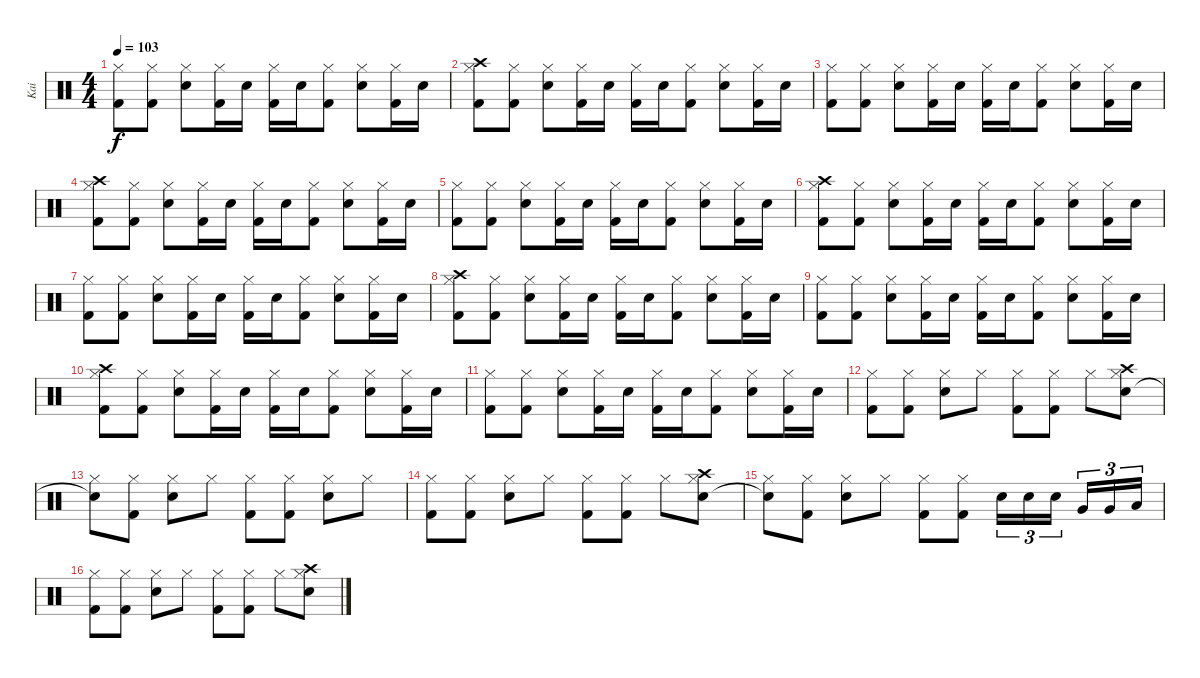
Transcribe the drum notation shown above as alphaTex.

\track ("Kai" "Kai") {instrument percussion}
\staff {score}
\articulation defaults
\ts (4 4)
\tempo 103
\clef neutral
\ks c
("Hi-Hat (closed)" "Kick (hit) 2").8{dy f} ("Hi-Hat (closed)" "Kick (hit) 2").8 ("Hi-Hat (closed)" "Electric Snare (hit)").8 ("Hi-Hat (closed)" "Kick (hit) 2").16 "Electric Snare (hit)".16 ("Hi-Hat (closed)" "Kick (hit) 2").16 "Electric Snare (hit)".16 ("Hi-Hat (closed)" "Kick (hit) 2").8 ("Hi-Hat (closed)" "Electric Snare (hit)").8 ("Hi-Hat (closed)" "Kick (hit) 2").16 "Electric Snare (hit)".16 |
("Crash high (hit)" "Hi-Hat (closed)" "Kick (hit) 2").8 ("Hi-Hat (closed)" "Kick (hit) 2").8 ("Hi-Hat (closed)" "Electric Snare (hit)").8 ("Hi-Hat (closed)" "Kick (hit) 2").16 "Electric Snare (hit)".16 ("Hi-Hat (closed)" "Kick (hit) 2").16 "Electric Snare (hit)".16 ("Hi-Hat (closed)" "Kick (hit) 2").8 ("Hi-Hat (closed)" "Electric Snare (hit)").8 ("Hi-Hat (closed)" "Kick (hit) 2").16 "Electric Snare (hit)".16 |
("Hi-Hat (closed)" "Kick (hit) 2").8 ("Hi-Hat (closed)" "Kick (hit) 2").8 ("Hi-Hat (closed)" "Electric Snare (hit)").8 ("Hi-Hat (closed)" "Kick (hit) 2").16 "Electric Snare (hit)".16 ("Hi-Hat (closed)" "Kick (hit) 2").16 "Electric Snare (hit)".16 ("Hi-Hat (closed)" "Kick (hit) 2").8 ("Hi-Hat (closed)" "Electric Snare (hit)").8 ("Hi-Hat (closed)" "Kick (hit) 2").16 "Electric Snare (hit)".16 |
("Crash high (hit)" "Hi-Hat (closed)" "Kick (hit) 2").8 ("Hi-Hat (closed)" "Kick (hit) 2").8 ("Hi-Hat (closed)" "Electric Snare (hit)").8 ("Hi-Hat (closed)" "Kick (hit) 2").16 "Electric Snare (hit)".16 ("Hi-Hat (closed)" "Kick (hit) 2").16 "Electric Snare (hit)".16 ("Hi-Hat (closed)" "Kick (hit) 2").8 ("Hi-Hat (closed)" "Electric Snare (hit)").8 ("Hi-Hat (closed)" "Kick (hit) 2").16 "Electric Snare (hit)".16 |
("Hi-Hat (closed)" "Kick (hit) 2").8 ("Hi-Hat (closed)" "Kick (hit) 2").8 ("Hi-Hat (closed)" "Electric Snare (hit)").8 ("Hi-Hat (closed)" "Kick (hit) 2").16 "Electric Snare (hit)".16 ("Hi-Hat (closed)" "Kick (hit) 2").16 "Electric Snare (hit)".16 ("Hi-Hat (closed)" "Kick (hit) 2").8 ("Hi-Hat (closed)" "Electric Snare (hit)").8 ("Hi-Hat (closed)" "Kick (hit) 2").16 "Electric Snare (hit)".16 |
("Crash high (hit)" "Hi-Hat (closed)" "Kick (hit) 2").8 ("Hi-Hat (closed)" "Kick (hit) 2").8 ("Hi-Hat (closed)" "Electric Snare (hit)").8 ("Hi-Hat (closed)" "Kick (hit) 2").16 "Electric Snare (hit)".16 ("Hi-Hat (closed)" "Kick (hit) 2").16 "Electric Snare (hit)".16 ("Hi-Hat (closed)" "Kick (hit) 2").8 ("Hi-Hat (closed)" "Electric Snare (hit)").8 ("Hi-Hat (closed)" "Kick (hit) 2").16 "Electric Snare (hit)".16 |
("Hi-Hat (closed)" "Kick (hit) 2").8 ("Hi-Hat (closed)" "Kick (hit) 2").8 ("Hi-Hat (closed)" "Electric Snare (hit)").8 ("Hi-Hat (closed)" "Kick (hit) 2").16 "Electric Snare (hit)".16 ("Hi-Hat (closed)" "Kick (hit) 2").16 "Electric Snare (hit)".16 ("Hi-Hat (closed)" "Kick (hit) 2").8 ("Hi-Hat (closed)" "Electric Snare (hit)").8 ("Hi-Hat (closed)" "Kick (hit) 2").16 "Electric Snare (hit)".16 |
("Crash high (hit)" "Hi-Hat (closed)" "Kick (hit) 2").8 ("Hi-Hat (closed)" "Kick (hit) 2").8 ("Hi-Hat (closed)" "Electric Snare (hit)").8 ("Hi-Hat (closed)" "Kick (hit) 2").16 "Electric Snare (hit)".16 ("Hi-Hat (closed)" "Kick (hit) 2").16 "Electric Snare (hit)".16 ("Hi-Hat (closed)" "Kick (hit) 2").8 ("Hi-Hat (closed)" "Electric Snare (hit)").8 ("Hi-Hat (closed)" "Kick (hit) 2").16 "Electric Snare (hit)".16 |
("Hi-Hat (closed)" "Kick (hit) 2").8 ("Hi-Hat (closed)" "Kick (hit) 2").8 ("Hi-Hat (closed)" "Electric Snare (hit)").8 ("Hi-Hat (closed)" "Kick (hit) 2").16 "Electric Snare (hit)".16 ("Hi-Hat (closed)" "Kick (hit) 2").16 "Electric Snare (hit)".16 ("Hi-Hat (closed)" "Kick (hit) 2").8 ("Hi-Hat (closed)" "Electric Snare (hit)").8 ("Hi-Hat (closed)" "Kick (hit) 2").16 "Electric Snare (hit)".16 |
("Crash high (hit)" "Hi-Hat (closed)" "Kick (hit) 2").8 ("Hi-Hat (closed)" "Kick (hit) 2").8 ("Hi-Hat (closed)" "Electric Snare (hit)").8 ("Hi-Hat (closed)" "Kick (hit) 2").16 "Electric Snare (hit)".16 ("Hi-Hat (closed)" "Kick (hit) 2").16 "Electric Snare (hit)".16 ("Hi-Hat (closed)" "Kick (hit) 2").8 ("Hi-Hat (closed)" "Electric Snare (hit)").8 ("Hi-Hat (closed)" "Kick (hit) 2").16 "Electric Snare (hit)".16 |
("Hi-Hat (closed)" "Kick (hit) 2").8 ("Hi-Hat (closed)" "Kick (hit) 2").8 ("Hi-Hat (closed)" "Electric Snare (hit)").8 ("Hi-Hat (closed)" "Kick (hit) 2").16 "Electric Snare (hit)".16 ("Hi-Hat (closed)" "Kick (hit) 2").16 "Electric Snare (hit)".16 ("Hi-Hat (closed)" "Kick (hit) 2").8 ("Hi-Hat (closed)" "Electric Snare (hit)").8 ("Hi-Hat (closed)" "Kick (hit) 2").16 "Electric Snare (hit)".16 |
("Hi-Hat (closed)" "Kick (hit) 2").8 ("Hi-Hat (closed)" "Kick (hit) 2").8 ("Hi-Hat (closed)" "Electric Snare (hit)").8 "Hi-Hat (closed)".8 ("Hi-Hat (closed)" "Kick (hit) 2").8 ("Hi-Hat (closed)" "Kick (hit) 2").8 "Hi-Hat (closed)".8 ("Electric Snare (hit)" "Crash high (hit)" "Hi-Hat (closed)").8 |
("Snare (hit)"{t} "Hi-Hat (closed)").8 ("Hi-Hat (closed)" "Kick (hit) 2").8 ("Hi-Hat (closed)" "Electric Snare (hit)").8 "Hi-Hat (closed)".8 ("Hi-Hat (closed)" "Kick (hit) 2").8 ("Hi-Hat (closed)" "Kick (hit) 2").8 ("Hi-Hat (closed)" "Electric Snare (hit)").8 "Hi-Hat (closed)".8 |
("Hi-Hat (closed)" "Kick (hit) 2").8 ("Hi-Hat (closed)" "Kick (hit) 2").8 ("Hi-Hat (closed)" "Electric Snare (hit)").8 "Hi-Hat (closed)".8 ("Hi-Hat (closed)" "Kick (hit) 2").8 ("Hi-Hat (closed)" "Kick (hit) 2").8 "Hi-Hat (closed)".8 ("Electric Snare (hit)" "Crash high (hit)" "Hi-Hat (closed)").8 |
("Snare (hit)"{t} "Hi-Hat (closed)").8 ("Hi-Hat (closed)" "Kick (hit) 2").8 ("Hi-Hat (closed)" "Electric Snare (hit)").8 "Hi-Hat (closed)".8 ("Hi-Hat (closed)" "Kick (hit) 2").8 ("Hi-Hat (closed)" "Kick (hit) 2").8 "Electric Snare (hit)".16{tu (3 2)} "Electric Snare (hit)".16{tu (3 2)} "Electric Snare (hit)".16{tu (3 2) beam splitsecondary} "Very Low Tom (hit)".16{tu (3 2)} "Very Low Tom (hit)".16{tu (3 2)} "Low Floor Tom (hit)".16{tu (3 2)} |
("Hi-Hat (closed)" "Kick (hit) 2").8 ("Hi-Hat (closed)" "Kick (hit) 2").8 ("Hi-Hat (closed)" "Electric Snare (hit)").8 "Hi-Hat (closed)".8 ("Hi-Hat (closed)" "Kick (hit) 2").8 ("Hi-Hat (closed)" "Kick (hit) 2").8 "Hi-Hat (closed)".8 ("Electric Snare (hit)" "Crash high (hit)" "Hi-Hat (closed)").8
